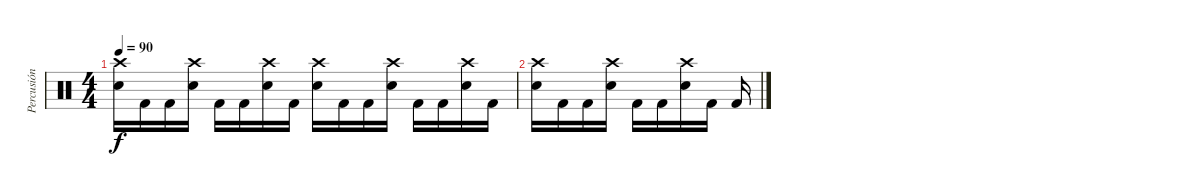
\track ("Percusión" "Percusión") {instrument percussion}
\staff {score}
\articulation defaults
\ts (4 4)
\tempo 90
\clef neutral
\ks c
("Crash high (hit)" "Snare (hit) 2").16{dy f} "Kick (hit) 2".16 "Kick (hit) 2".16 ("Crash high (hit)" "Snare (hit) 2").16 "Kick (hit) 2".16 "Kick (hit) 2".16 ("Crash high (hit)" "Snare (hit) 2").16 "Kick (hit) 2".16 ("Crash high (hit)" "Snare (hit) 2").16 "Kick (hit) 2".16 "Kick (hit) 2".16 ("Crash high (hit)" "Snare (hit) 2").16 "Kick (hit) 2".16 "Kick (hit) 2".16 ("Crash high (hit)" "Snare (hit) 2").16 "Kick (hit) 2".16 |
("Crash high (hit)" "Snare (hit) 2").16 "Kick (hit) 2".16 "Kick (hit) 2".16 ("Crash high (hit)" "Snare (hit) 2").16 "Kick (hit) 2".16 "Kick (hit) 2".16 ("Crash high (hit)" "Snare (hit) 2").16 "Kick (hit) 2".16 "Kick (hit) 2".16
